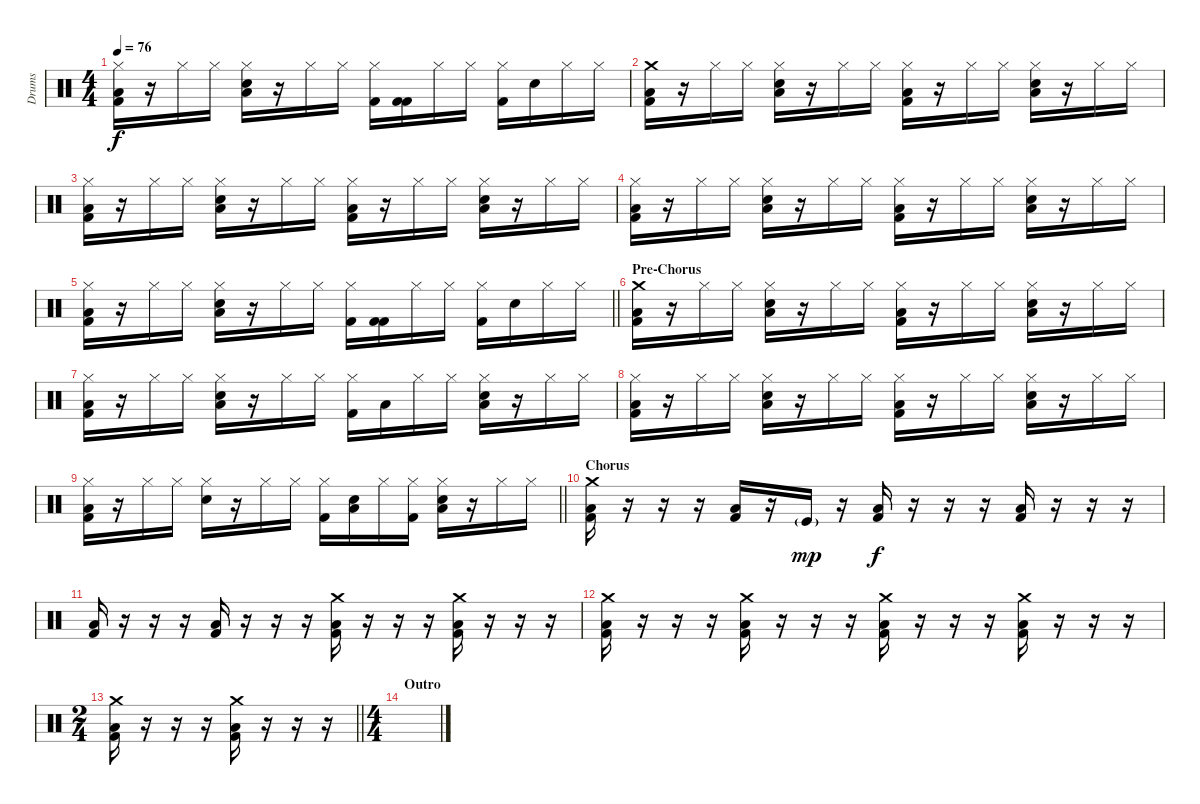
\track ("Drums" "Drums") {instrument percussion}
\staff {score}
\articulation defaults
\ts (4 4)
\tempo 76
\clef neutral
\ks c
("Hi-Hat (closed)" "Kick (hit) 2" "Low Floor Tom (hit)").16{dy f} r.16 "Hi-Hat (closed)".16 "Hi-Hat (closed)".16 ("Hi-Hat (closed)" "Snare (hit) 2" "Low Floor Tom (hit)").16 r.16 "Hi-Hat (closed)".16 "Hi-Hat (closed)".16 ("Hi-Hat (closed)" "Kick (hit) 2").16 ("Kick (hit) 2" "Kick (hit) 2").16 "Hi-Hat (closed)".16 "Hi-Hat (closed)".16 ("Hi-Hat (closed)" "Kick (hit) 2").16 "Snare (hit) 2".16 "Hi-Hat (closed)".16 "Hi-Hat (closed)".16 |
("Crash medium (hit)" "Kick (hit) 2" "Low Floor Tom (hit)").16 r.16 "Hi-Hat (closed)".16 "Hi-Hat (closed)".16 ("Hi-Hat (closed)" "Snare (hit) 2" "Low Floor Tom (hit)").16 r.16 "Hi-Hat (closed)".16 "Hi-Hat (closed)".16 ("Hi-Hat (closed)" "Kick (hit) 2" "Low Floor Tom (hit)").16 r.16 "Hi-Hat (closed)".16 "Hi-Hat (closed)".16 ("Hi-Hat (closed)" "Snare (hit) 2" "Low Floor Tom (hit)").16 r.16 "Hi-Hat (closed)".16 "Hi-Hat (closed)".16 |
("Hi-Hat (closed)" "Kick (hit) 2" "Low Floor Tom (hit)").16 r.16 "Hi-Hat (closed)".16 "Hi-Hat (closed)".16 ("Hi-Hat (closed)" "Snare (hit) 2" "Low Floor Tom (hit)").16 r.16 "Hi-Hat (closed)".16 "Hi-Hat (closed)".16 ("Hi-Hat (closed)" "Kick (hit) 2" "Low Floor Tom (hit)").16 r.16 "Hi-Hat (closed)".16 "Hi-Hat (closed)".16 ("Hi-Hat (closed)" "Snare (hit) 2" "Low Floor Tom (hit)").16 r.16 "Hi-Hat (closed)".16 "Hi-Hat (closed)".16 |
("Hi-Hat (closed)" "Kick (hit) 2" "Low Floor Tom (hit)").16 r.16 "Hi-Hat (closed)".16 "Hi-Hat (closed)".16 ("Hi-Hat (closed)" "Snare (hit) 2" "Low Floor Tom (hit)").16 r.16 "Hi-Hat (closed)".16 "Hi-Hat (closed)".16 ("Hi-Hat (closed)" "Kick (hit) 2" "Low Floor Tom (hit)").16 r.16 "Hi-Hat (closed)".16 "Hi-Hat (closed)".16 ("Hi-Hat (closed)" "Snare (hit) 2" "Low Floor Tom (hit)").16 r.16 "Hi-Hat (closed)".16 "Hi-Hat (closed)".16 |
\barLineRight lightlight
("Hi-Hat (closed)" "Kick (hit) 2" "Low Floor Tom (hit)").16 r.16 "Hi-Hat (closed)".16 "Hi-Hat (closed)".16 ("Hi-Hat (closed)" "Snare (hit) 2" "Low Floor Tom (hit)").16 r.16 "Hi-Hat (closed)".16 "Hi-Hat (closed)".16 ("Hi-Hat (closed)" "Kick (hit) 2").16 ("Kick (hit) 2" "Kick (hit) 2").16 "Hi-Hat (closed)".16 "Hi-Hat (closed)".16 ("Hi-Hat (closed)" "Kick (hit) 2").16 "Snare (hit) 2".16 "Hi-Hat (closed)".16 "Hi-Hat (closed)".16 |
\section ("" "Pre-Chorus")
("Crash medium (hit)" "Kick (hit) 2" "Low Floor Tom (hit)").16 r.16 "Hi-Hat (closed)".16 "Hi-Hat (closed)".16 ("Hi-Hat (closed)" "Snare (hit) 2" "Low Floor Tom (hit)").16 r.16 "Hi-Hat (closed)".16 "Hi-Hat (closed)".16 ("Hi-Hat (closed)" "Kick (hit) 2" "Low Floor Tom (hit)").16 r.16 "Hi-Hat (closed)".16 "Hi-Hat (closed)".16 ("Hi-Hat (closed)" "Snare (hit) 2" "Low Floor Tom (hit)").16 r.16 "Hi-Hat (closed)".16 "Hi-Hat (closed)".16 |
("Hi-Hat (closed)" "Kick (hit) 2" "Low Floor Tom (hit)").16 r.16 "Hi-Hat (closed)".16 "Hi-Hat (closed)".16 ("Hi-Hat (closed)" "Snare (hit) 2" "Low Floor Tom (hit)").16 r.16 "Hi-Hat (closed)".16 "Hi-Hat (closed)".16 ("Hi-Hat (closed)" "Kick (hit) 2").16 "Low Tom (hit)".16 "Hi-Hat (closed)".16 "Hi-Hat (closed)".16 ("Hi-Hat (closed)" "Snare (hit) 2" "Low Floor Tom (hit)").16 r.16 "Hi-Hat (closed)".16 "Hi-Hat (closed)".16 |
("Hi-Hat (closed)" "Kick (hit) 2" "Low Floor Tom (hit)").16 r.16 "Hi-Hat (closed)".16 "Hi-Hat (closed)".16 ("Hi-Hat (closed)" "Snare (hit) 2" "Low Floor Tom (hit)").16 r.16 "Hi-Hat (closed)".16 "Hi-Hat (closed)".16 ("Hi-Hat (closed)" "Kick (hit) 2" "Low Floor Tom (hit)").16 r.16 "Hi-Hat (closed)".16 "Hi-Hat (closed)".16 ("Hi-Hat (closed)" "Snare (hit) 2" "Low Floor Tom (hit)").16 r.16 "Hi-Hat (closed)".16 "Hi-Hat (closed)".16 |
\barLineRight lightlight
("Hi-Hat (closed)" "Kick (hit) 2" "Low Floor Tom (hit)").16 r.16 "Hi-Hat (closed)".16 "Hi-Hat (closed)".16 ("Hi-Hat (closed)" "Snare (hit) 2").16 r.16 "Hi-Hat (closed)".16 "Hi-Hat (closed)".16 ("Hi-Hat (closed)" "Kick (hit) 2").16 ("Snare (hit) 2" "Low Floor Tom (hit)").16 "Hi-Hat (closed)".16 ("Hi-Hat (closed)" "Kick (hit) 2").16 ("Hi-Hat (closed)" "Snare (hit) 2" "Low Floor Tom (hit)").16 r.16 "Hi-Hat (closed)".16 "Hi-Hat (closed)".16 |
\section ("" "Chorus")
("Crash medium (hit)" "Kick (hit) 2" "Low Floor Tom (hit)").16 r.16 r.16 r.16 ("Kick (hit) 2" "Low Floor Tom (hit)").16 r.16 "Kick (hit)"{g}.16{dy mp} r.16 ("Kick (hit) 2" "Low Floor Tom (hit)").16{dy f} r.16 r.16 r.16 ("Kick (hit) 2" "Low Floor Tom (hit)").16 r.16 r.16 r.16 |
("Kick (hit) 2" "Low Floor Tom (hit)").16 r.16 r.16 r.16 ("Kick (hit) 2" "Low Floor Tom (hit)").16 r.16 r.16 r.16 ("Crash medium (hit)" "Kick (hit) 2" "Low Floor Tom (hit)").16 r.16 r.16 r.16 ("Crash medium (hit)" "Kick (hit) 2" "Low Floor Tom (hit)").16 r.16 r.16 r.16 |
("Crash medium (hit)" "Kick (hit) 2" "Low Floor Tom (hit)").16 r.16 r.16 r.16 ("Crash medium (hit)" "Kick (hit) 2" "Low Floor Tom (hit)").16 r.16 r.16 r.16 ("Crash medium (hit)" "Kick (hit) 2" "Low Floor Tom (hit)").16 r.16 r.16 r.16 ("Crash medium (hit)" "Kick (hit) 2" "Low Floor Tom (hit)").16 r.16 r.16 r.16 |
\ts (2 4)
\barLineRight lightlight
("Crash medium (hit)" "Kick (hit) 2" "Low Floor Tom (hit)").16 r.16 r.16 r.16 ("Crash medium (hit)" "Kick (hit) 2" "Low Floor Tom (hit)").16 r.16 r.16 r.16 |
\ts (4 4)
\section ("" "Outro")
